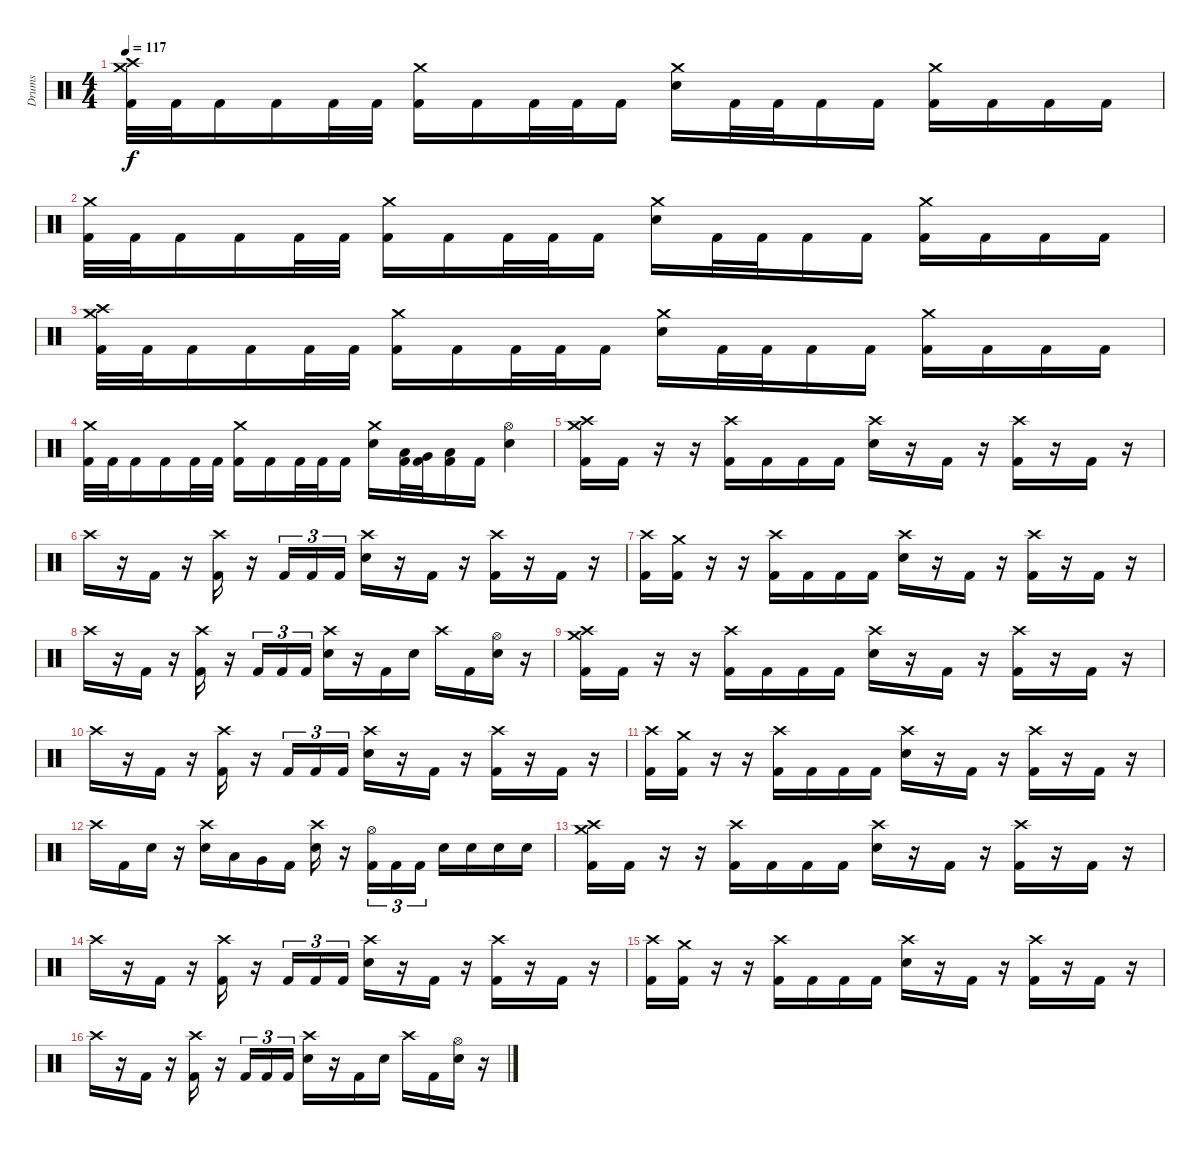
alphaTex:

\track ("Drums" "Drums") {instrument percussion}
\staff {score}
\articulation defaults
\ts (4 4)
\tempo 117
\clef neutral
\ks c
("Crash medium (hit)" "Crash high (hit)" "Kick (hit) 2").32{dy f} "Kick (hit) 2".32 "Kick (hit) 2".16 "Kick (hit) 2".16 "Kick (hit) 2".32 "Kick (hit) 2".32 ("Crash medium (hit)" "Kick (hit) 2").16 "Kick (hit) 2".16 "Kick (hit) 2".32 "Kick (hit) 2".32 "Kick (hit) 2".16 ("Crash medium (hit)" "Snare (hit) 2").16 "Kick (hit) 2".32 "Kick (hit) 2".32 "Kick (hit) 2".16 "Kick (hit) 2".16 ("Crash medium (hit)" "Kick (hit) 2").16 "Kick (hit) 2".16 "Kick (hit) 2".16 "Kick (hit) 2".16 |
("Crash medium (hit)" "Kick (hit) 2").32 "Kick (hit) 2".32 "Kick (hit) 2".16 "Kick (hit) 2".16 "Kick (hit) 2".32 "Kick (hit) 2".32 ("Crash medium (hit)" "Kick (hit) 2").16 "Kick (hit) 2".16 "Kick (hit) 2".32 "Kick (hit) 2".32 "Kick (hit) 2".16 ("Crash medium (hit)" "Snare (hit) 2").16 "Kick (hit) 2".32 "Kick (hit) 2".32 "Kick (hit) 2".16 "Kick (hit) 2".16 ("Crash medium (hit)" "Kick (hit) 2").16 "Kick (hit) 2".16 "Kick (hit) 2".16 "Kick (hit) 2".16 |
("Crash medium (hit)" "Crash high (hit)" "Kick (hit) 2").32 "Kick (hit) 2".32 "Kick (hit) 2".16 "Kick (hit) 2".16 "Kick (hit) 2".32 "Kick (hit) 2".32 ("Crash medium (hit)" "Kick (hit) 2").16 "Kick (hit) 2".16 "Kick (hit) 2".32 "Kick (hit) 2".32 "Kick (hit) 2".16 ("Crash medium (hit)" "Snare (hit) 2").16 "Kick (hit) 2".32 "Kick (hit) 2".32 "Kick (hit) 2".16 "Kick (hit) 2".16 ("Crash medium (hit)" "Kick (hit) 2").16 "Kick (hit) 2".16 "Kick (hit) 2".16 "Kick (hit) 2".16 |
("Crash medium (hit)" "Kick (hit) 2").32 "Kick (hit) 2".32 "Kick (hit) 2".16 "Kick (hit) 2".16 "Kick (hit) 2".32 "Kick (hit) 2".32 ("Crash medium (hit)" "Kick (hit) 2").16 "Kick (hit) 2".16 "Kick (hit) 2".32 "Kick (hit) 2".32 "Kick (hit) 2".16 ("Crash medium (hit)" "Snare (hit) 2").16 ("Low Tom (hit)" "Kick (hit) 2").32 ("Very Low Tom (hit)" "Kick (hit) 2").32 ("Low Floor Tom (hit)" "Kick (hit) 2").16 "Kick (hit) 2".16 ("Hi-Hat (open)" "Snare (hit) 2").4 |
("Crash high (hit)" "Crash medium (hit)" "Kick (hit) 2").16 "Kick (hit) 2".16 r.16 r.16 ("Crash high (hit)" "Kick (hit) 2").16 "Kick (hit) 2".16 "Kick (hit) 2".16 "Kick (hit) 2".16 ("Crash high (hit)" "Snare (hit) 2").16 r.16 "Kick (hit) 2".16 r.16 ("Crash high (hit)" "Kick (hit) 2").16 r.16 "Kick (hit) 2".16 r.16 |
"Crash high (hit)".16 r.16 "Kick (hit) 2".16 r.16 ("Crash high (hit)" "Kick (hit) 2").16 r.16 "Kick (hit) 2".16{tu (3 2)} "Kick (hit) 2".16{tu (3 2)} "Kick (hit) 2".16{tu (3 2)} ("Crash high (hit)" "Snare (hit) 2").16 r.16 "Kick (hit) 2".16 r.16 ("Crash high (hit)" "Kick (hit) 2").16 r.16 "Kick (hit) 2".16 r.16 |
("Crash high (hit)" "Kick (hit) 2").16 ("Crash medium (hit)" "Kick (hit) 2").16 r.16 r.16 ("Crash high (hit)" "Kick (hit) 2").16 "Kick (hit) 2".16 "Kick (hit) 2".16 "Kick (hit) 2".16 ("Crash high (hit)" "Snare (hit) 2").16 r.16 "Kick (hit) 2".16 r.16 ("Crash high (hit)" "Kick (hit) 2").16 r.16 "Kick (hit) 2".16 r.16 |
"Crash high (hit)".16 r.16 "Kick (hit) 2".16 r.16 ("Crash high (hit)" "Kick (hit) 2").16 r.16 "Kick (hit) 2".16{tu (3 2)} "Kick (hit) 2".16{tu (3 2)} "Kick (hit) 2".16{tu (3 2)} ("Crash high (hit)" "Snare (hit) 2").16 r.16 "Kick (hit) 2".16 "Snare (hit) 2".16 "Crash high (hit)".16 "Kick (hit) 2".16 ("Hi-Hat (open)" "Snare (hit) 2").16 r.16 |
("Crash high (hit)" "Crash medium (hit)" "Kick (hit) 2").16 "Kick (hit) 2".16 r.16 r.16 ("Crash high (hit)" "Kick (hit) 2").16 "Kick (hit) 2".16 "Kick (hit) 2".16 "Kick (hit) 2".16 ("Crash high (hit)" "Snare (hit) 2").16 r.16 "Kick (hit) 2".16 r.16 ("Crash high (hit)" "Kick (hit) 2").16 r.16 "Kick (hit) 2".16 r.16 |
"Crash high (hit)".16 r.16 "Kick (hit) 2".16 r.16 ("Crash high (hit)" "Kick (hit) 2").16 r.16 "Kick (hit) 2".16{tu (3 2)} "Kick (hit) 2".16{tu (3 2)} "Kick (hit) 2".16{tu (3 2)} ("Crash high (hit)" "Snare (hit) 2").16 r.16 "Kick (hit) 2".16 r.16 ("Crash high (hit)" "Kick (hit) 2").16 r.16 "Kick (hit) 2".16 r.16 |
("Crash high (hit)" "Kick (hit) 2").16 ("Crash medium (hit)" "Kick (hit) 2").16 r.16 r.16 ("Crash high (hit)" "Kick (hit) 2").16 "Kick (hit) 2".16 "Kick (hit) 2".16 "Kick (hit) 2".16 ("Crash high (hit)" "Snare (hit) 2").16 r.16 "Kick (hit) 2".16 r.16 ("Crash high (hit)" "Kick (hit) 2").16 r.16 "Kick (hit) 2".16 r.16 |
"Crash high (hit)".16 "Kick (hit) 2".16 "Snare (hit) 2".16 r.16 ("Crash high (hit)" "Snare (hit) 2").16 "Low Tom (hit)".16 "Very Low Tom (hit)".16 "Kick (hit) 2".16 ("Crash high (hit)" "Snare (hit) 2").16 r.16 ("Hi-Hat (open)" "Kick (hit) 2").16{tu (3 2)} "Kick (hit) 2".16{tu (3 2)} "Kick (hit) 2".16{tu (3 2)} "Snare (hit) 2".16 "Snare (hit) 2".16 "Snare (hit) 2".16 "Snare (hit) 2".16 |
("Crash high (hit)" "Crash medium (hit)" "Kick (hit) 2").16 "Kick (hit) 2".16 r.16 r.16 ("Crash high (hit)" "Kick (hit) 2").16 "Kick (hit) 2".16 "Kick (hit) 2".16 "Kick (hit) 2".16 ("Crash high (hit)" "Snare (hit) 2").16 r.16 "Kick (hit) 2".16 r.16 ("Crash high (hit)" "Kick (hit) 2").16 r.16 "Kick (hit) 2".16 r.16 |
"Crash high (hit)".16 r.16 "Kick (hit) 2".16 r.16 ("Crash high (hit)" "Kick (hit) 2").16 r.16 "Kick (hit) 2".16{tu (3 2)} "Kick (hit) 2".16{tu (3 2)} "Kick (hit) 2".16{tu (3 2)} ("Crash high (hit)" "Snare (hit) 2").16 r.16 "Kick (hit) 2".16 r.16 ("Crash high (hit)" "Kick (hit) 2").16 r.16 "Kick (hit) 2".16 r.16 |
("Crash high (hit)" "Kick (hit) 2").16 ("Crash medium (hit)" "Kick (hit) 2").16 r.16 r.16 ("Crash high (hit)" "Kick (hit) 2").16 "Kick (hit) 2".16 "Kick (hit) 2".16 "Kick (hit) 2".16 ("Crash high (hit)" "Snare (hit) 2").16 r.16 "Kick (hit) 2".16 r.16 ("Crash high (hit)" "Kick (hit) 2").16 r.16 "Kick (hit) 2".16 r.16 |
"Crash high (hit)".16 r.16 "Kick (hit) 2".16 r.16 ("Crash high (hit)" "Kick (hit) 2").16 r.16 "Kick (hit) 2".16{tu (3 2)} "Kick (hit) 2".16{tu (3 2)} "Kick (hit) 2".16{tu (3 2)} ("Crash high (hit)" "Snare (hit) 2").16 r.16 "Kick (hit) 2".16 "Snare (hit) 2".16 "Crash high (hit)".16 "Kick (hit) 2".16 ("Hi-Hat (open)" "Snare (hit) 2").16 r.16
